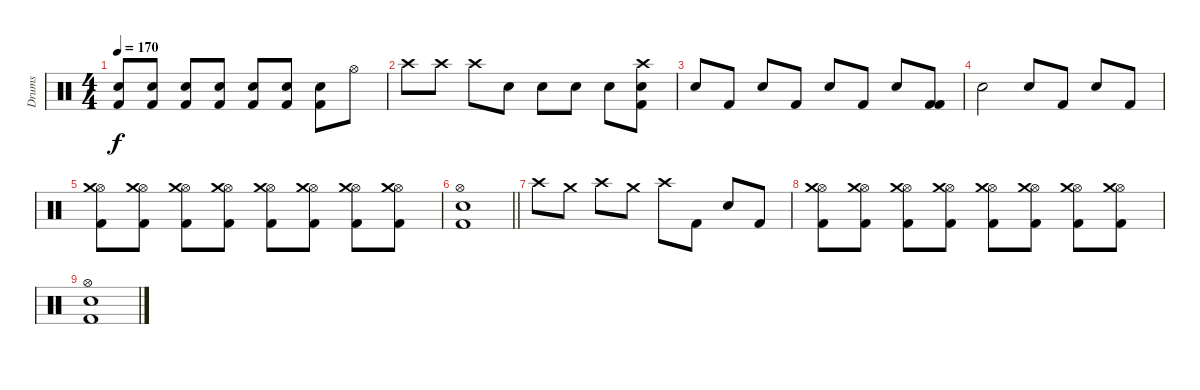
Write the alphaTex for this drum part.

\track ("Drums" "Drums") {instrument percussion}
\staff {score}
\articulation defaults
\ts (4 4)
\tempo 170
\clef neutral
\ks c
("Electric Snare (hit)" "Kick (hit) 2").8{dy f} ("Electric Snare (hit)" "Kick (hit) 2").8 ("Electric Snare (hit)" "Kick (hit) 2").8 ("Electric Snare (hit)" "Kick (hit) 2").8 ("Electric Snare (hit)" "Kick (hit) 2").8 ("Electric Snare (hit)" "Kick (hit) 2").8 ("Electric Snare (hit)" "Kick (hit) 2").8 "Hi-Hat (open)".8 |
"Crash high (hit)".8 "Crash high (hit)".8 "Crash high (hit)".8 "Electric Snare (hit)".8 "Electric Snare (hit)".8 "Electric Snare (hit)".8 "Electric Snare (hit)".8 ("Electric Snare (hit)" "Crash high (hit)" "Kick (hit) 2").8 |
"Electric Snare (hit)".8 "Kick (hit) 2".8 "Electric Snare (hit)".8 "Kick (hit) 2".8 "Electric Snare (hit)".8 "Kick (hit) 2".8 "Electric Snare (hit)".8 ("Kick (hit) 2" "Kick (hit) 2").8 |
"Electric Snare (hit)".2 "Electric Snare (hit)".8 "Kick (hit) 2".8 "Electric Snare (hit)".8 "Kick (hit) 2".8 |
("Hi-Hat (open)" "Crash medium (hit)" "Kick (hit) 2").8 ("Hi-Hat (open)" "Crash medium (hit)" "Kick (hit) 2").8 ("Hi-Hat (open)" "Crash medium (hit)" "Kick (hit) 2").8 ("Hi-Hat (open)" "Crash medium (hit)" "Kick (hit) 2").8 ("Hi-Hat (open)" "Crash medium (hit)" "Kick (hit) 2").8 ("Hi-Hat (open)" "Crash medium (hit)" "Kick (hit) 2").8 ("Hi-Hat (open)" "Crash medium (hit)" "Kick (hit) 2").8 ("Hi-Hat (open)" "Crash medium (hit)" "Kick (hit) 2").8 |
\barLineRight lightlight
("Hi-Hat (open)" "Electric Snare (hit)" "Kick (hit) 2").1 |
"Crash high (hit)".8 "Crash medium (hit)".8 "Crash high (hit)".8 "Crash medium (hit)".8 "Crash high (hit)".8 "Kick (hit) 2".8 "Electric Snare (hit)".8 "Kick (hit) 2".8 |
("Hi-Hat (open)" "Crash medium (hit)" "Kick (hit) 2").8 ("Hi-Hat (open)" "Crash medium (hit)" "Kick (hit) 2").8 ("Hi-Hat (open)" "Crash medium (hit)" "Kick (hit) 2").8 ("Hi-Hat (open)" "Crash medium (hit)" "Kick (hit) 2").8 ("Hi-Hat (open)" "Crash medium (hit)" "Kick (hit) 2").8 ("Hi-Hat (open)" "Crash medium (hit)" "Kick (hit) 2").8 ("Hi-Hat (open)" "Crash medium (hit)" "Kick (hit) 2").8 ("Hi-Hat (open)" "Crash medium (hit)" "Kick (hit) 2").8 |
("Hi-Hat (open)" "Electric Snare (hit)" "Kick (hit) 2").1
